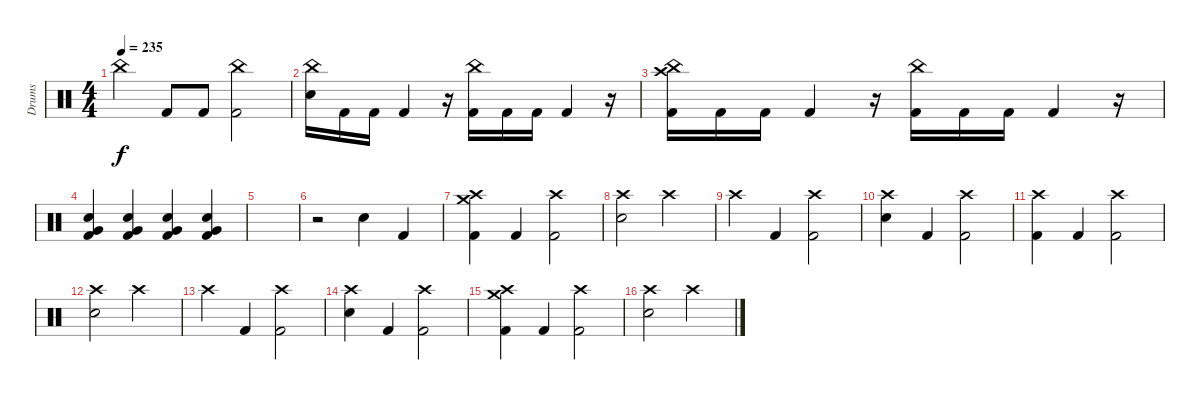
\track ("Drums" "Drums") {instrument percussion}
\staff {score}
\articulation defaults
\ts (4 4)
\tempo 235
\clef neutral
\ks c "China (hit)".4{dy f} "Kick (hit) 2".8 "Kick (hit) 2".8
("China (hit)" "Kick (hit) 2").2 |
("China (hit)" "Electric Snare (hit)").16 "Kick (hit) 2".16 "Kick (hit) 2".16 "Kick (hit) 2".4 r.16 ("China (hit)" "Kick (hit) 2").16 "Kick (hit) 2".16 "Kick (hit) 2".16 "Kick (hit) 2".4 r.16 |
("China (hit)" "Crash high (hit)" "Kick (hit) 2").16 "Kick (hit) 2".16 "Kick (hit) 2".16 "Kick (hit) 2".4 r.16 ("China (hit)" "Kick (hit) 2").16 "Kick (hit) 2".16 "Kick (hit) 2".16 "Kick (hit) 2".4 r.16 |
("Very Low Tom (hit)" "Electric Snare (hit)" "Kick (hit) 2").4 ("Very Low Tom (hit)" "Electric Snare (hit)" "Kick (hit) 2").4 ("Very Low Tom (hit)" "Electric Snare (hit)" "Kick (hit) 2").4 ("Very Low Tom (hit)" "Electric Snare (hit)" "Kick (hit) 2").4 |
|
r.2 "Electric Snare (hit)".4 "Kick (hit) 2".4 |
("Crash high (hit)" "Crash medium (hit)" "Kick (hit) 2").4 "Kick (hit) 2".4 ("Crash high (hit)" "Kick (hit) 2").2 |
("Crash high (hit)" "Electric Snare (hit)").2 "Crash high (hit)".2 |
"Crash high (hit)".4 "Kick (hit) 2".4 ("Crash high (hit)" "Kick (hit) 2").2 |
("Crash high (hit)" "Electric Snare (hit)").4 "Kick (hit) 2".4 ("Crash high (hit)" "Kick (hit) 2").2 |
("Crash high (hit)" "Kick (hit) 2").4 "Kick (hit) 2".4 ("Crash high (hit)" "Kick (hit) 2").2 |
("Crash high (hit)" "Electric Snare (hit)").2 "Crash high (hit)".2 |
"Crash high (hit)".4 "Kick (hit) 2".4 ("Crash high (hit)" "Kick (hit) 2").2 |
("Crash high (hit)" "Electric Snare (hit)").4 "Kick (hit) 2".4 ("Crash high (hit)" "Kick (hit) 2").2 |
("Crash high (hit)" "Crash medium (hit)" "Kick (hit) 2").4 "Kick (hit) 2".4 ("Crash high (hit)" "Kick (hit) 2").2 |
("Crash high (hit)" "Electric Snare (hit)").2 "Crash high (hit)".2
